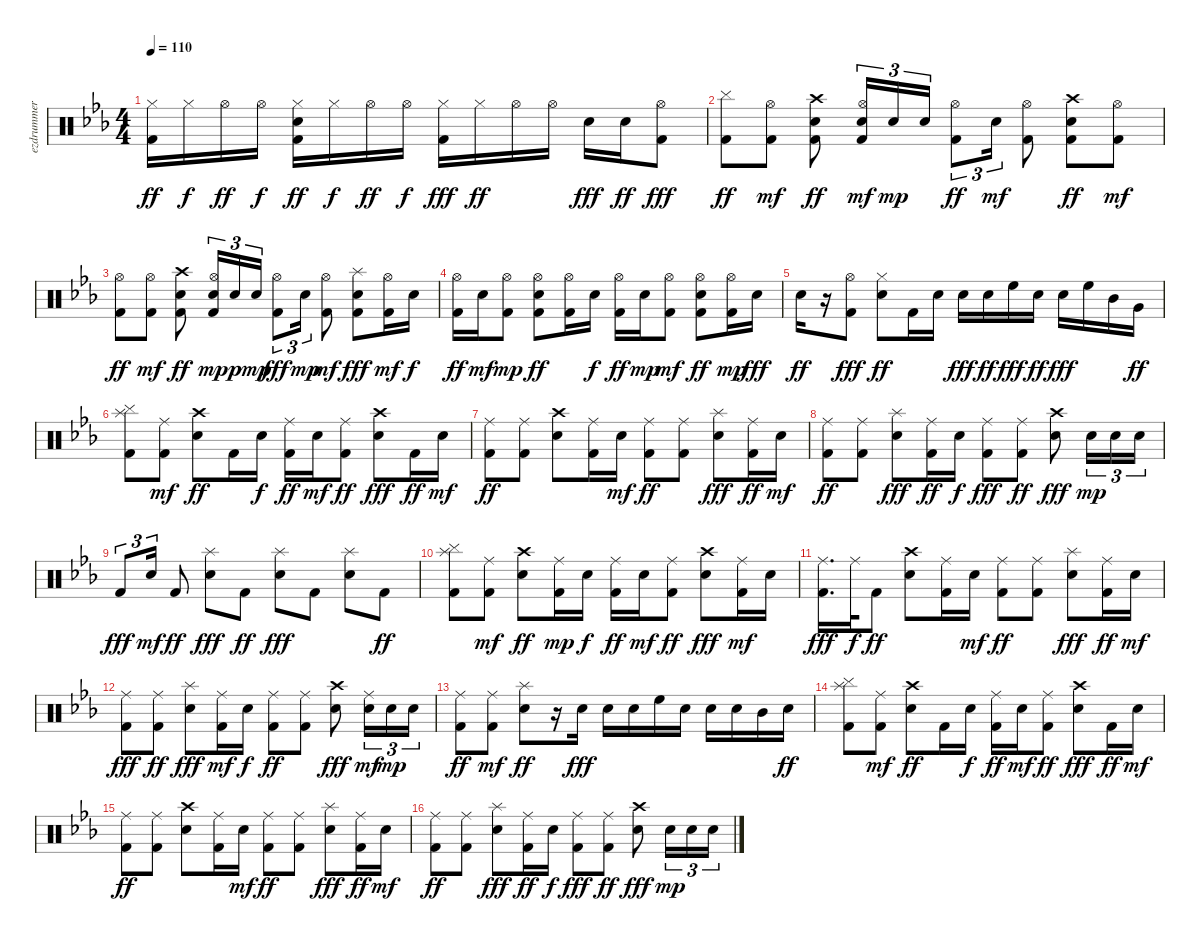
\track ("ezdrummer 03" "ezdrummer ") {instrument percussion}
\staff {score}
\articulation defaults
\ts (4 4)
\tempo 110
\clef neutral
\ks cminor
("Kick (hit) 2" "Hi-Hat (closed)").16{dy ff} "Hi-Hat (closed)".16{dy f} "Hi-Hat (open)".16{dy ff} "Hi-Hat (open)".16{dy f} ("Kick (hit) 2" "Snare (hit) 2" "Hi-Hat (closed)").16{dy ff} "Hi-Hat (closed)".16{dy f} "Hi-Hat (open)".16{dy ff} "Hi-Hat (open)".16{dy f} ("Kick (hit) 2" "Hi-Hat (closed)").16{dy fff} "Hi-Hat (closed)".16{dy ff} "Hi-Hat (open)".16 "Hi-Hat (open)".16 "Snare (hit) 2".16{dy fff} "Snare (hit) 2".16{dy ff} ("Kick (hit) 2" "Hi-Hat (open)").8{dy fff} |
("Cymbal (hit)" "Kick (hit) 2").8{dy ff} ("Kick (hit) 2" "Hi-Hat (open)").8{dy mf} ("Kick (hit) 2" "Snare (hit) 2" "Crash high (hit)").8{dy ff} ("Kick (hit) 2" "Snare (hit) 2" "Hi-Hat (open)").16{tu (3 2) dy mf} "Snare (hit) 2".16{tu (3 2) dy mp} "Snare (hit) 2".16{tu (3 2)} ("Kick (hit) 2" "Hi-Hat (open)").8{tu (3 2) dy ff} "Snare (hit) 2".16{tu (3 2) dy mf} ("Kick (hit) 2" "Hi-Hat (open)").8 ("Kick (hit) 2" "Snare (hit) 2" "Crash high (hit)").8{dy ff} ("Kick (hit) 2" "Hi-Hat (open)").8{dy mf} |
("Kick (hit) 2" "Hi-Hat (open)").8{dy ff} ("Kick (hit) 2" "Hi-Hat (open)").8{dy mf} ("Kick (hit) 2" "Snare (hit) 2" "Crash high (hit)").8{dy ff} ("Kick (hit) 2" "Snare (hit) 2" "Hi-Hat (open)").16{tu (3 2) dy mp} "Snare (hit) 2".16{tu (3 2) dy p} "Snare (hit) 2".16{tu (3 2) dy mp} ("Kick (hit) 2" "Hi-Hat (open)").8{tu (3 2) dy fff} "Snare (hit) 2".16{tu (3 2) dy mp} ("Kick (hit) 2" "Hi-Hat (open)").8{dy mf} ("Kick (hit) 2" "Snare (hit) 2" "Splash (hit)").8{dy fff} ("Kick (hit) 2" "Hi-Hat (open)").16{dy mf} "Snare (hit) 2".16{dy f} |
("Kick (hit) 2" "Hi-Hat (open)").16{dy ff} "Snare (hit) 2".16{dy mf} ("Kick (hit) 2" "Hi-Hat (open)").8{dy mp} ("Kick (hit) 2" "Snare (hit) 2" "Hi-Hat (open)").8{dy ff} ("Kick (hit) 2" "Hi-Hat (open)").16 "Snare (hit) 2".16{dy f} ("Kick (hit) 2" "Hi-Hat (open)").16{dy ff} "Snare (hit) 2".16{dy mp} ("Kick (hit) 2" "Hi-Hat (open)").8{dy mf} ("Kick (hit) 2" "Snare (hit) 2" "Hi-Hat (open)").8{dy ff} ("Kick (hit) 2" "Hi-Hat (open)").16{dy mp} "Snare (hit) 2".16{dy fff} |
"Snare (hit) 2".16{dy ff} r.16 ("Kick (hit) 2" "Hi-Hat (open)").8{dy fff} ("Snare (hit) 2" "Hi-Hat (closed)").8{dy ff} "Kick (hit) 2".16 "Snare (hit) 2".16 "Snare (hit) 2".16{dy fff} "Snare (hit) 2".16{dy ff} "High Floor Tom (hit)".16{dy fff} "Snare (hit) 2".16{dy ff} "Snare (hit) 2".16{dy fff} "High Floor Tom (hit)".16 "Mid Tom (hit)".16 "Very Low Tom (hit)".16{dy ff} |
("Cymbal (hit)" "Kick (hit) 2" "Splash (hit)").8 ("Kick (hit) 2" "Ride (middle)").8{dy mf} ("Snare (hit) 2" "Crash high (hit)").8{dy ff} "Kick (hit) 2".16 "Snare (hit) 2".16{dy f} ("Kick (hit) 2" "Ride (middle)").16{dy ff} "Snare (hit) 2".16{dy mf} ("Kick (hit) 2" "Ride (middle)").8{dy ff} ("Snare (hit) 2" "Crash high (hit)").8{dy fff} "Kick (hit) 2".16{dy ff} "Snare (hit) 2".16{dy mf} |
("Kick (hit) 2" "Ride (middle)").8{dy ff} ("Kick (hit) 2" "Ride (middle)").8 ("Snare (hit) 2" "Crash high (hit)").8 ("Kick (hit) 2" "Ride (middle)").16 "Snare (hit) 2".16{dy mf} ("Kick (hit) 2" "Ride (middle)").8{dy ff} ("Kick (hit) 2" "Ride (middle)").8 ("Snare (hit) 2" "Splash (hit)").8{dy fff} ("Kick (hit) 2" "Ride (middle)").16{dy ff} "Snare (hit) 2".16{dy mf} |
("Kick (hit) 2" "Ride (middle)").8{dy ff} ("Kick (hit) 2" "Ride (middle)").8 ("Snare (hit) 2" "Splash (hit)").8{dy fff} ("Kick (hit) 2" "Ride (middle)").16{dy ff} "Snare (hit) 2".16{dy f} ("Kick (hit) 2" "Ride (middle)").8{dy fff} ("Kick (hit) 2" "Ride (middle)").8{dy ff} ("Snare (hit) 2" "Crash high (hit)").8{dy fff} "Snare (hit) 2".16{tu (3 2) dy mp} "Snare (hit) 2".16{tu (3 2)} "Snare (hit) 2".16{tu (3 2)} |
"Kick (hit) 2".8{tu (3 2) dy fff} "Snare (hit) 2".16{tu (3 2) dy mf} "Kick (hit) 2".8{dy ff} ("Snare (hit) 2" "Splash (hit)").8{dy fff} "Kick (hit) 2".8{dy ff} ("Snare (hit) 2" "Splash (hit)").8{dy fff} "Kick (hit) 2".8 ("Snare (hit) 2" "Splash (hit)").8 "Kick (hit) 2".8{dy ff} |
("Cymbal (hit)" "Kick (hit) 2" "Splash (hit)").8 ("Kick (hit) 2" "Ride (middle)").8{dy mf} ("Snare (hit) 2" "Crash high (hit)").8{dy ff} ("Kick (hit) 2" "Ride (middle)").16{dy mp} "Snare (hit) 2".16{dy f} ("Kick (hit) 2" "Ride (middle)").16{dy ff} "Snare (hit) 2".16{dy mf} ("Kick (hit) 2" "Ride (middle)").8{dy ff} ("Snare (hit) 2" "Crash high (hit)").8{dy fff} ("Kick (hit) 2" "Ride (middle)").16{dy mf} "Snare (hit) 2".16 |
("Ride (middle)" "Kick (hit) 2").16{d dy fff} "Ride (middle)".32{dy f} "Kick (hit) 2".8{dy ff} ("Snare (hit) 2" "Crash high (hit)").8 ("Kick (hit) 2" "Ride (middle)").16 "Snare (hit) 2".16{dy mf} ("Kick (hit) 2" "Ride (middle)").8{dy ff} ("Kick (hit) 2" "Ride (middle)").8 ("Snare (hit) 2" "Splash (hit)").8{dy fff} ("Kick (hit) 2" "Ride (middle)").16{dy ff} "Snare (hit) 2".16{dy mf} |
("Kick (hit) 2" "Ride (middle)").8{dy fff} ("Kick (hit) 2" "Ride (middle)").8{dy ff} ("Snare (hit) 2" "Splash (hit)").8{dy fff} ("Kick (hit) 2" "Ride (middle)").16{dy mf} "Snare (hit) 2".16{dy f} ("Kick (hit) 2" "Ride (middle)").8{dy ff} ("Kick (hit) 2" "Ride (middle)").8 ("Snare (hit) 2" "Crash high (hit)").8{dy fff} ("Snare (hit) 2" "Ride (middle)").16{tu (3 2) dy mf} "Snare (hit) 2".16{tu (3 2) dy mp} "Snare (hit) 2".16{tu (3 2)} |
("Kick (hit) 2" "Ride (middle)").8{dy ff} ("Kick (hit) 2" "Ride (middle)").8{dy mf} ("Snare (hit) 2" "Splash (hit)").8{dy ff} r.16 "Snare (hit) 2".16{dy fff} "Snare (hit) 2".16 "Snare (hit) 2".16 "High Floor Tom (hit)".16 "Snare (hit) 2".16 "Snare (hit) 2".16 "Snare (hit) 2".16 "Mid Tom (hit)".16 "Snare (hit) 2".16{dy ff} |
("Cymbal (hit)" "Kick (hit) 2" "Splash (hit)").8 ("Kick (hit) 2" "Ride (middle)").8{dy mf} ("Snare (hit) 2" "Crash high (hit)").8{dy ff} "Kick (hit) 2".16 "Snare (hit) 2".16{dy f} ("Kick (hit) 2" "Ride (middle)").16{dy ff} "Snare (hit) 2".16{dy mf} ("Kick (hit) 2" "Ride (middle)").8{dy ff} ("Snare (hit) 2" "Crash high (hit)").8{dy fff} "Kick (hit) 2".16{dy ff} "Snare (hit) 2".16{dy mf} |
("Kick (hit) 2" "Ride (middle)").8{dy ff} ("Kick (hit) 2" "Ride (middle)").8 ("Snare (hit) 2" "Crash high (hit)").8 ("Kick (hit) 2" "Ride (middle)").16 "Snare (hit) 2".16{dy mf} ("Kick (hit) 2" "Ride (middle)").8{dy ff} ("Kick (hit) 2" "Ride (middle)").8 ("Snare (hit) 2" "Splash (hit)").8{dy fff} ("Kick (hit) 2" "Ride (middle)").16{dy ff} "Snare (hit) 2".16{dy mf} |
("Kick (hit) 2" "Ride (middle)").8{dy ff} ("Kick (hit) 2" "Ride (middle)").8 ("Snare (hit) 2" "Splash (hit)").8{dy fff} ("Kick (hit) 2" "Ride (middle)").16{dy ff} "Snare (hit) 2".16{dy f} ("Kick (hit) 2" "Ride (middle)").8{dy fff} ("Kick (hit) 2" "Ride (middle)").8{dy ff} ("Snare (hit) 2" "Crash high (hit)").8{dy fff} "Snare (hit) 2".16{tu (3 2) dy mp} "Snare (hit) 2".16{tu (3 2)} "Snare (hit) 2".16{tu (3 2)}
